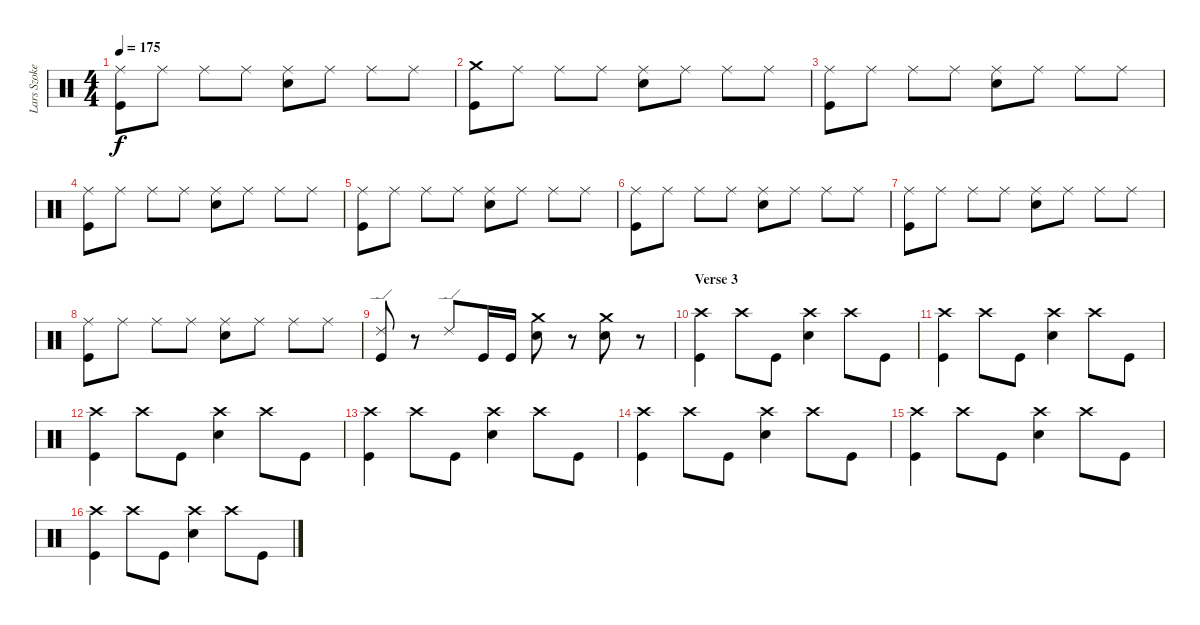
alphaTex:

\track ("Lars Szoke" "Lars Szoke") {instrument percussion}
\staff {score}
\articulation defaults
\ts (4 4)
\tempo 175
\clef neutral
\ks c
("Ride (middle)" "Kick (hit)").8{dy f} "Ride (middle)".8 "Ride (middle)".8 "Ride (middle)".8 ("Ride (middle)" "Electric Snare (hit)").8 "Ride (middle)".8 "Ride (middle)".8 "Ride (middle)".8 |
("Crash medium (hit)" "Kick (hit)").8 "Ride (middle)".8 "Ride (middle)".8 "Ride (middle)".8 ("Ride (middle)" "Electric Snare (hit)").8 "Ride (middle)".8 "Ride (middle)".8 "Ride (middle)".8 |
("Ride (middle)" "Kick (hit)").8 "Ride (middle)".8 "Ride (middle)".8 "Ride (middle)".8 ("Ride (middle)" "Electric Snare (hit)").8 "Ride (middle)".8 "Ride (middle)".8 "Ride (middle)".8 |
("Ride (middle)" "Kick (hit)").8 "Ride (middle)".8 "Ride (middle)".8 "Ride (middle)".8 ("Ride (middle)" "Electric Snare (hit)").8 "Ride (middle)".8 "Ride (middle)".8 "Ride (middle)".8 |
("Ride (middle)" "Kick (hit)").8 "Ride (middle)".8 "Ride (middle)".8 "Ride (middle)".8 ("Ride (middle)" "Electric Snare (hit)").8 "Ride (middle)".8 "Ride (middle)".8 "Ride (middle)".8 |
("Ride (middle)" "Kick (hit)").8 "Ride (middle)".8 "Ride (middle)".8 "Ride (middle)".8 ("Ride (middle)" "Electric Snare (hit)").8 "Ride (middle)".8 "Ride (middle)".8 "Ride (middle)".8 |
("Ride (middle)" "Kick (hit)").8 "Ride (middle)".8 "Ride (middle)".8 "Ride (middle)".8 ("Ride (middle)" "Electric Snare (hit)").8 "Ride (middle)".8 "Ride (middle)".8 "Ride (middle)".8 |
("Ride (middle)" "Kick (hit)").8 "Ride (middle)".8 "Ride (middle)".8 "Ride (middle)".8 ("Ride (middle)" "Electric Snare (hit)").8 "Ride (middle)".8 "Ride (middle)".8 "Ride (middle)".8 |
("Ride (edge) 2" "Kick (hit)").8 r.8 "Ride (edge) 2".8 "Kick (hit)".16 "Kick (hit)".16 ("Crash medium (hit)" "Electric Snare (hit)").8 r.8 ("Crash medium (hit)" "Electric Snare (hit)").8 r.8 |
\section ("" "Verse 3")
("Crash high (hit)" "Kick (hit)").4 "Crash high (hit)".8 "Kick (hit)".8 ("Crash high (hit)" "Electric Snare (hit)").4 "Crash high (hit)".8 "Kick (hit)".8 |
("Crash high (hit)" "Kick (hit)").4 "Crash high (hit)".8 "Kick (hit)".8 ("Crash high (hit)" "Electric Snare (hit)").4 "Crash high (hit)".8 "Kick (hit)".8 |
("Crash high (hit)" "Kick (hit)").4 "Crash high (hit)".8 "Kick (hit)".8 ("Crash high (hit)" "Electric Snare (hit)").4 "Crash high (hit)".8 "Kick (hit)".8 |
("Crash high (hit)" "Kick (hit)").4 "Crash high (hit)".8 "Kick (hit)".8 ("Crash high (hit)" "Electric Snare (hit)").4 "Crash high (hit)".8 "Kick (hit)".8 |
("Crash high (hit)" "Kick (hit)").4 "Crash high (hit)".8 "Kick (hit)".8 ("Crash high (hit)" "Electric Snare (hit)").4 "Crash high (hit)".8 "Kick (hit)".8 |
("Crash high (hit)" "Kick (hit)").4 "Crash high (hit)".8 "Kick (hit)".8 ("Crash high (hit)" "Electric Snare (hit)").4 "Crash high (hit)".8 "Kick (hit)".8 |
("Crash high (hit)" "Kick (hit)").4 "Crash high (hit)".8 "Kick (hit)".8 ("Crash high (hit)" "Electric Snare (hit)").4 "Crash high (hit)".8 "Kick (hit)".8
